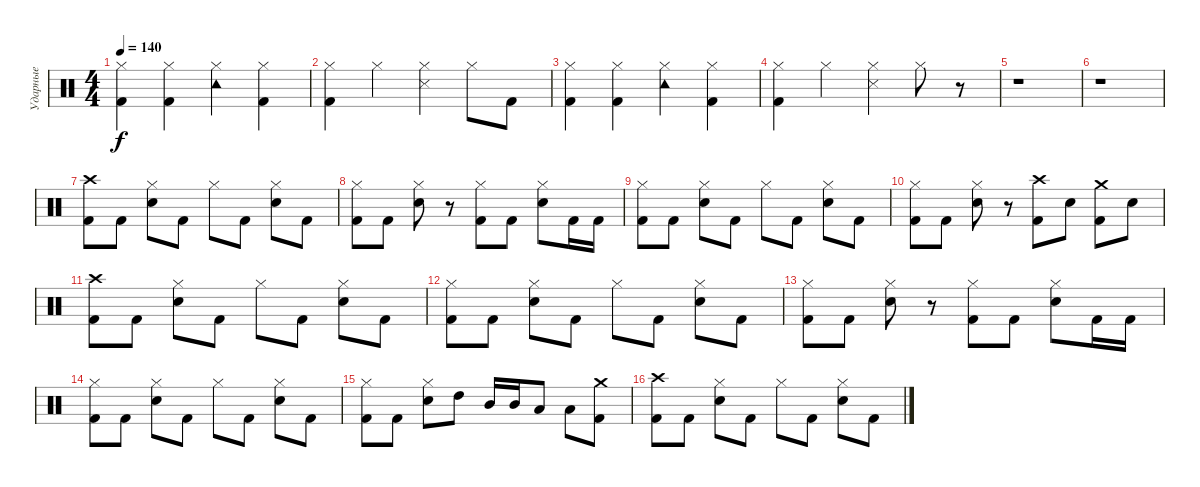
\track ("Ударные" "Ударные") {instrument percussion}
\staff {score}
\articulation defaults
\ts (4 4)
\tempo 140
\clef neutral
\ks c
("Kick (hit) 2" "Hi-Hat (closed)").4{dy f} ("Kick (hit) 2" "Hi-Hat (closed)").4 ("Tambourine (hit)" "Hi-Hat (closed)").4 ("Kick (hit) 2" "Hi-Hat (closed)").4 |
("Hi-Hat (closed)" "Kick (hit) 2").4 "Hi-Hat (closed)".4 ("Snare (side stick) 3" "Hi-Hat (closed)").4 "Hi-Hat (closed)".8 "Kick (hit) 2".8 |
("Kick (hit) 2" "Hi-Hat (closed)").4 ("Kick (hit) 2" "Hi-Hat (closed)").4 ("Tambourine (hit)" "Hi-Hat (closed)").4 ("Kick (hit) 2" "Hi-Hat (closed)").4 |
("Hi-Hat (closed)" "Kick (hit) 2").4 "Hi-Hat (closed)".4 ("Snare (side stick) 3" "Hi-Hat (closed)").4 "Hi-Hat (closed)".8 r.8 |
r.1 |
r.1 |
("Kick (hit) 2" "Crash high (hit)").8 "Kick (hit) 2".8 ("Electric Snare (hit)" "Hi-Hat (closed)").8 "Kick (hit) 2".8 "Hi-Hat (closed)".8 "Kick (hit) 2".8 ("Electric Snare (hit)" "Hi-Hat (closed)").8 "Kick (hit) 2".8 |
("Kick (hit) 2" "Hi-Hat (closed)").8 "Kick (hit) 2".8 ("Electric Snare (hit)" "Hi-Hat (closed)").8 r.8 ("Kick (hit) 2" "Hi-Hat (closed)").8 "Kick (hit) 2".8 ("Electric Snare (hit)" "Hi-Hat (closed)").8 "Kick (hit) 2".16 "Kick (hit) 2".16 |
("Kick (hit) 2" "Hi-Hat (closed)").8 "Kick (hit) 2".8 ("Electric Snare (hit)" "Hi-Hat (closed)").8 "Kick (hit) 2".8 "Hi-Hat (closed)".8 "Kick (hit) 2".8 ("Electric Snare (hit)" "Hi-Hat (closed)").8 "Kick (hit) 2".8 |
("Kick (hit) 2" "Hi-Hat (closed)").8 "Kick (hit) 2".8 ("Electric Snare (hit)" "Hi-Hat (closed)").8 r.8 ("Kick (hit) 2" "Crash high (hit)").8 "Electric Snare (hit)".8 ("Kick (hit) 2" "Crash medium (hit)").8 "Electric Snare (hit)".8 |
("Kick (hit) 2" "Crash high (hit)").8 "Kick (hit) 2".8 ("Electric Snare (hit)" "Hi-Hat (closed)").8 "Kick (hit) 2".8 "Hi-Hat (closed)".8 "Kick (hit) 2".8 ("Electric Snare (hit)" "Hi-Hat (closed)").8 "Kick (hit) 2".8 |
("Kick (hit) 2" "Hi-Hat (closed)").8 "Kick (hit) 2".8 ("Electric Snare (hit)" "Hi-Hat (closed)").8 "Kick (hit) 2".8 "Hi-Hat (closed)".8 "Kick (hit) 2".8 ("Electric Snare (hit)" "Hi-Hat (closed)").8 "Kick (hit) 2".8 |
("Kick (hit) 2" "Hi-Hat (closed)").8 "Kick (hit) 2".8 ("Electric Snare (hit)" "Hi-Hat (closed)").8 r.8 ("Kick (hit) 2" "Hi-Hat (closed)").8 "Kick (hit) 2".8 ("Electric Snare (hit)" "Hi-Hat (closed)").8 "Kick (hit) 2".16 "Kick (hit) 2".16 |
("Kick (hit) 2" "Hi-Hat (closed)").8 "Kick (hit) 2".8 ("Electric Snare (hit)" "Hi-Hat (closed)").8 "Kick (hit) 2".8 "Hi-Hat (closed)".8 "Kick (hit) 2".8 ("Electric Snare (hit)" "Hi-Hat (closed)").8 "Kick (hit) 2".8 |
("Kick (hit) 2" "Hi-Hat (closed)").8 "Kick (hit) 2".8 ("Electric Snare (hit)" "Hi-Hat (closed)").8 "High Tom (hit)".8 "Mid Tom (hit)".16 "Mid Tom (hit)".16 "Low Tom (hit)".8 "Low Tom (hit)".8 ("Crash medium (hit)" "Kick (hit) 2").8 |
("Kick (hit) 2" "Crash high (hit)").8 "Kick (hit) 2".8 ("Electric Snare (hit)" "Hi-Hat (closed)").8 "Kick (hit) 2".8 "Hi-Hat (closed)".8 "Kick (hit) 2".8 ("Electric Snare (hit)" "Hi-Hat (closed)").8 "Kick (hit) 2".8
